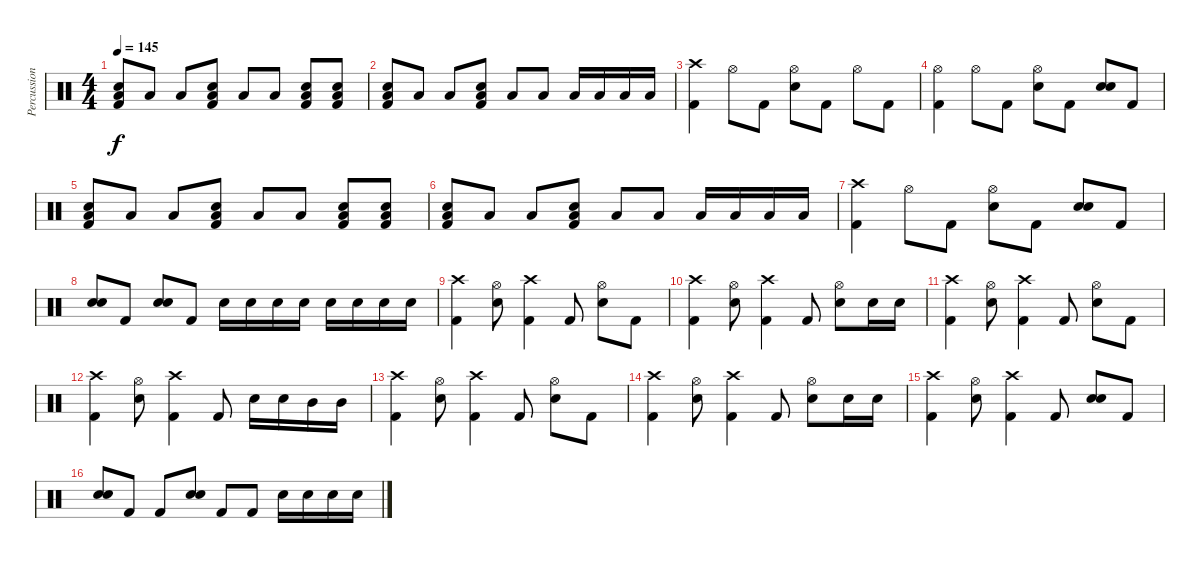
\track ("Percussion" "Percussion") {instrument percussion}
\staff {score}
\articulation defaults
\ts (4 4)
\tempo 145
\clef neutral
\ks c
("Low Floor Tom (hit)" "Snare (hit) 2" "Kick (hit) 2").8{dy f} "Low Floor Tom (hit)".8 "Low Floor Tom (hit)".8 ("Low Floor Tom (hit)" "Snare (hit) 2" "Kick (hit) 2").8 "Low Floor Tom (hit)".8 "Low Floor Tom (hit)".8 ("Low Floor Tom (hit)" "Snare (hit) 2" "Kick (hit) 2").8 ("Low Floor Tom (hit)" "Snare (hit) 2" "Kick (hit) 2").8 |
("Low Floor Tom (hit)" "Snare (hit) 2" "Kick (hit) 2").8 "Low Floor Tom (hit)".8 "Low Floor Tom (hit)".8 ("Low Floor Tom (hit)" "Snare (hit) 2" "Kick (hit) 2").8 "Low Floor Tom (hit)".8 "Low Floor Tom (hit)".8 "Low Tom (hit)".16 "Low Tom (hit)".16 "Low Tom (hit)".16 "Low Tom (hit)".16 |
("Crash high (hit)" "Kick (hit) 2").4 "Hi-Hat (open)".8 "Kick (hit) 2".8 ("Hi-Hat (open)" "Snare (hit) 2").8 "Kick (hit) 2".8 "Hi-Hat (open)".8 "Kick (hit) 2".8 |
("Hi-Hat (open)" "Kick (hit) 2").4 "Hi-Hat (open)".8 "Kick (hit) 2".8 ("Hi-Hat (open)" "Snare (hit) 2").8 "Kick (hit) 2".8 ("Snare (hit) 2" "Snare (hit) 2").8{bd 240} "Kick (hit) 2".8 |
("Low Floor Tom (hit)" "Snare (hit) 2" "Kick (hit) 2").8 "Low Floor Tom (hit)".8 "Low Floor Tom (hit)".8 ("Low Floor Tom (hit)" "Snare (hit) 2" "Kick (hit) 2").8 "Low Floor Tom (hit)".8 "Low Floor Tom (hit)".8 ("Low Floor Tom (hit)" "Snare (hit) 2" "Kick (hit) 2").8 ("Low Floor Tom (hit)" "Snare (hit) 2" "Kick (hit) 2").8 |
("Low Floor Tom (hit)" "Snare (hit) 2" "Kick (hit) 2").8 "Low Floor Tom (hit)".8 "Low Floor Tom (hit)".8 ("Low Floor Tom (hit)" "Snare (hit) 2" "Kick (hit) 2").8 "Low Floor Tom (hit)".8 "Low Floor Tom (hit)".8 "Low Tom (hit)".16 "Low Tom (hit)".16 "Low Tom (hit)".16 "Low Tom (hit)".16 |
("Crash high (hit)" "Kick (hit) 2").4 "Hi-Hat (open)".8 "Kick (hit) 2".8 ("Hi-Hat (open)" "Snare (hit) 2").8 "Kick (hit) 2".8 ("Snare (hit) 2" "Snare (hit) 2").8{bd 240} "Kick (hit) 2".8 |
("Snare (hit) 2" "Snare (hit) 2").8{bd 240} "Kick (hit) 2".8 ("Snare (hit) 2" "Snare (hit) 2").8{bd 240} "Kick (hit) 2".8 "Snare (hit) 2".16 "Snare (hit) 2".16 "Snare (hit) 2".16 "Snare (hit) 2".16 "Snare (hit) 2".16 "Snare (hit) 2".16 "Snare (hit) 2".16 "Snare (hit) 2".16 |
("Crash high (hit)" "Kick (hit) 2").4 ("Hi-Hat (open)" "Snare (hit) 2").8 ("Crash high (hit)" "Kick (hit) 2").4 "Kick (hit) 2".8 ("Hi-Hat (open)" "Snare (hit) 2").8 "Kick (hit) 2".8 |
("Crash high (hit)" "Kick (hit) 2").4 ("Hi-Hat (open)" "Snare (hit) 2").8 ("Crash high (hit)" "Kick (hit) 2").4 "Kick (hit) 2".8 ("Hi-Hat (open)" "Snare (hit) 2").8 "Snare (hit) 2".16 "Snare (hit) 2".16 |
("Crash high (hit)" "Kick (hit) 2").4 ("Hi-Hat (open)" "Snare (hit) 2").8 ("Crash high (hit)" "Kick (hit) 2").4 "Kick (hit) 2".8 ("Hi-Hat (open)" "Snare (hit) 2").8 "Kick (hit) 2".8 |
("Crash high (hit)" "Kick (hit) 2").4 ("Hi-Hat (open)" "Snare (hit) 2").8 ("Crash high (hit)" "Kick (hit) 2").4 "Kick (hit) 2".8 "Snare (hit) 2".16 "Snare (hit) 2".16 "Mid Tom (hit)".16 "Mid Tom (hit)".16 |
("Crash high (hit)" "Kick (hit) 2").4 ("Hi-Hat (open)" "Snare (hit) 2").8 ("Crash high (hit)" "Kick (hit) 2").4 "Kick (hit) 2".8 ("Hi-Hat (open)" "Snare (hit) 2").8 "Kick (hit) 2".8 |
("Crash high (hit)" "Kick (hit) 2").4 ("Hi-Hat (open)" "Snare (hit) 2").8 ("Crash high (hit)" "Kick (hit) 2").4 "Kick (hit) 2".8 ("Hi-Hat (open)" "Snare (hit) 2").8 "Snare (hit) 2".16 "Snare (hit) 2".16 |
("Crash high (hit)" "Kick (hit) 2").4 ("Hi-Hat (open)" "Snare (hit) 2").8 ("Crash high (hit)" "Kick (hit) 2").4 "Kick (hit) 2".8 ("Snare (hit) 2" "Snare (hit) 2").8{bd 240} "Kick (hit) 2".8 |
("Snare (hit) 2" "Snare (hit) 2").8{bd 240} "Kick (hit) 2".8 "Kick (hit) 2".8 ("Snare (hit) 2" "Snare (hit) 2").8{bd 240} "Kick (hit) 2".8 "Kick (hit) 2".8 "Snare (hit) 2".16 "Snare (hit) 2".16 "Snare (hit) 2".16 "Snare (hit) 2".16
